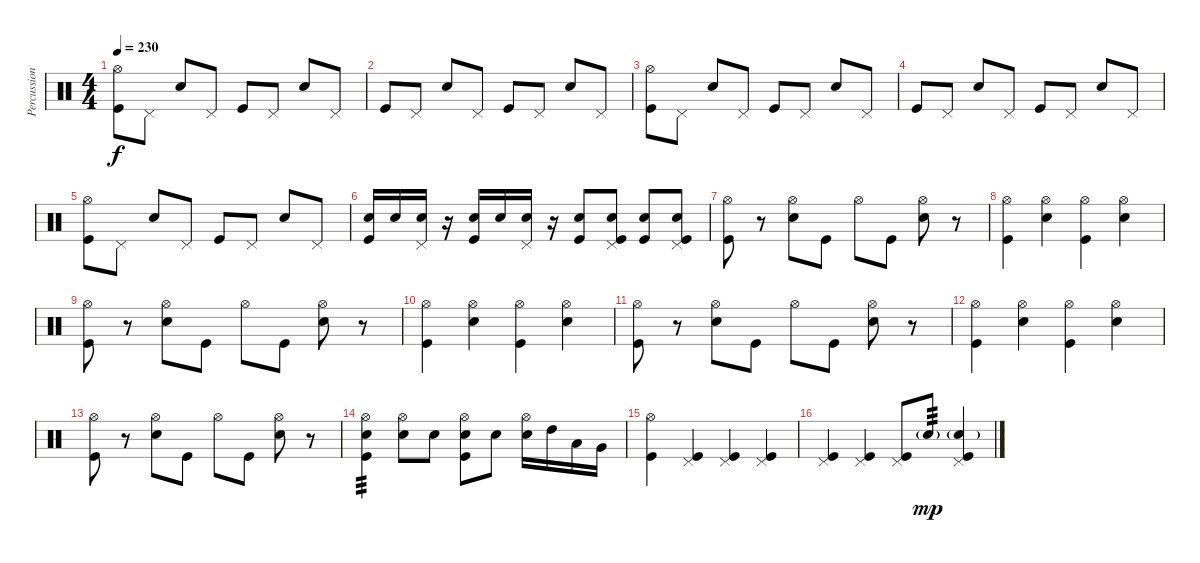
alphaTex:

\track ("Percussion" "Percussion") {instrument percussion}
\staff
\articulation defaults
\ts (4 4)
\tempo 230
\clef neutral
\ks c
("Hi-Hat (open)" "Kick (hit)").8{dy f} "Pedal Hi-Hat (hit)".8 "Electric Snare (hit)".8 "Pedal Hi-Hat (hit)".8 "Kick (hit)".8 "Pedal Hi-Hat (hit)".8 "Electric Snare (hit)".8 "Pedal Hi-Hat (hit)".8 |
"Kick (hit)".8 "Pedal Hi-Hat (hit)".8 "Electric Snare (hit)".8 "Pedal Hi-Hat (hit)".8 "Kick (hit)".8 "Pedal Hi-Hat (hit)".8 "Electric Snare (hit)".8 "Pedal Hi-Hat (hit)".8 |
("Hi-Hat (open)" "Kick (hit)").8 "Pedal Hi-Hat (hit)".8 "Electric Snare (hit)".8 "Pedal Hi-Hat (hit)".8 "Kick (hit)".8 "Pedal Hi-Hat (hit)".8 "Electric Snare (hit)".8 "Pedal Hi-Hat (hit)".8 |
"Kick (hit)".8 "Pedal Hi-Hat (hit)".8 "Electric Snare (hit)".8 "Pedal Hi-Hat (hit)".8 "Kick (hit)".8 "Pedal Hi-Hat (hit)".8 "Electric Snare (hit)".8 "Pedal Hi-Hat (hit)".8 |
("Hi-Hat (open)" "Kick (hit)").8 "Pedal Hi-Hat (hit)".8 "Electric Snare (hit)".8 "Pedal Hi-Hat (hit)".8 "Kick (hit)".8 "Pedal Hi-Hat (hit)".8 "Electric Snare (hit)".8 "Pedal Hi-Hat (hit)".8 |
("Electric Snare (hit)" "Kick (hit)").16 "Electric Snare (hit)".16 ("Pedal Hi-Hat (hit)" "Electric Snare (hit)").16 r.16 ("Electric Snare (hit)" "Kick (hit)").16 "Electric Snare (hit)".16 ("Pedal Hi-Hat (hit)" "Electric Snare (hit)").16 r.16 ("Electric Snare (hit)" "Kick (hit)").8 ("Pedal Hi-Hat (hit)" "Electric Snare (hit)" "Kick (hit)").8 ("Electric Snare (hit)" "Kick (hit)").8 ("Pedal Hi-Hat (hit)" "Electric Snare (hit)" "Kick (hit)").8 |
("Hi-Hat (open)" "Kick (hit)").8 r.8 ("Hi-Hat (open)" "Electric Snare (hit)").8 "Kick (hit)".8 "Hi-Hat (open)".8 "Kick (hit)".8 ("Hi-Hat (open)" "Electric Snare (hit)").8 r.8 |
("Hi-Hat (open)" "Kick (hit)").4 ("Hi-Hat (open)" "Electric Snare (hit)").4 ("Hi-Hat (open)" "Kick (hit)").4 ("Hi-Hat (open)" "Electric Snare (hit)").4 |
("Hi-Hat (open)" "Kick (hit)").8 r.8 ("Hi-Hat (open)" "Electric Snare (hit)").8 "Kick (hit)".8 "Hi-Hat (open)".8 "Kick (hit)".8 ("Hi-Hat (open)" "Electric Snare (hit)").8 r.8 |
("Hi-Hat (open)" "Kick (hit)").4 ("Hi-Hat (open)" "Electric Snare (hit)").4 ("Hi-Hat (open)" "Kick (hit)").4 ("Hi-Hat (open)" "Electric Snare (hit)").4 |
("Hi-Hat (open)" "Kick (hit)").8 r.8 ("Hi-Hat (open)" "Electric Snare (hit)").8 "Kick (hit)".8 "Hi-Hat (open)".8 "Kick (hit)".8 ("Hi-Hat (open)" "Electric Snare (hit)").8 r.8 |
("Hi-Hat (open)" "Kick (hit)").4 ("Hi-Hat (open)" "Electric Snare (hit)").4 ("Hi-Hat (open)" "Kick (hit)").4 ("Hi-Hat (open)" "Electric Snare (hit)").4 |
("Hi-Hat (open)" "Kick (hit)").8 r.8 ("Hi-Hat (open)" "Electric Snare (hit)").8 "Kick (hit)".8 "Hi-Hat (open)".8 "Kick (hit)".8 ("Hi-Hat (open)" "Electric Snare (hit)").8 r.8 |
("Hi-Hat (open)" "Electric Snare (hit)" "Kick (hit)").4{tp 3} ("Hi-Hat (open)" "Electric Snare (hit)").8 "Electric Snare (hit)".8 ("Hi-Hat (open)" "Electric Snare (hit)" "Kick (hit)").8 "Electric Snare (hit)".8 ("Hi-Hat (open)" "Electric Snare (hit)").16 "High Tom (hit)".16 "Low Tom (hit)".16 "Very Low Tom (hit)".16 |
("Hi-Hat (open)" "Kick (hit)").4 ("Pedal Hi-Hat (hit)" "Kick (hit)").4 ("Pedal Hi-Hat (hit)" "Kick (hit)").4 ("Pedal Hi-Hat (hit)" "Kick (hit)").4 |
("Pedal Hi-Hat (hit)" "Kick (hit)").4 ("Pedal Hi-Hat (hit)" "Kick (hit)").4 ("Pedal Hi-Hat (hit)" "Kick (hit)").8 "Electric Snare (hit)"{g}.8{tp 3 dy mp} ("Pedal Hi-Hat (hit)" "Electric Snare (hit)"{g} "Kick (hit)").4
